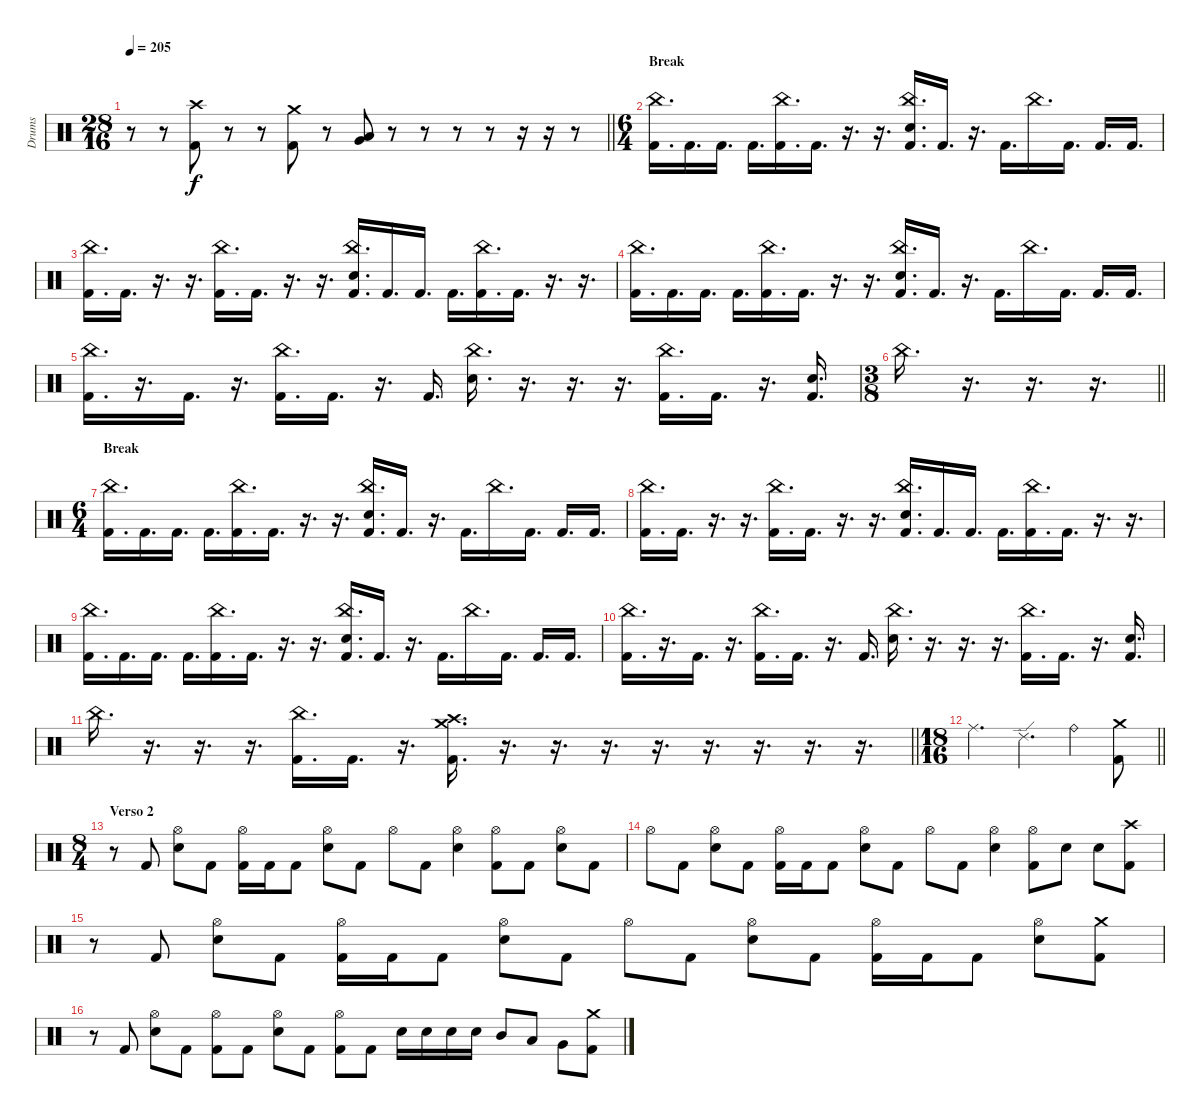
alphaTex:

\track ("Drums" "Drums") {instrument percussion}
\staff {score}
\articulation defaults
\ts (28 16)
\tempo 205
\clef neutral
\barLineRight lightlight
\ks c
r.8{dy f} r.8 ("Crash high (hit)" "Kick (hit) 2").8 r.8 r.8 ("Crash medium (hit)" "Kick (hit) 2").8 r.8 ("Low Floor Tom (hit)" "Very Low Tom (hit)").8 r.8 r.8 r.8 r.8 r.16 r.16 r.8 |
\ts (6 4)
\section ("" "Break")
("China (hit)" "Kick (hit) 2").16{d} "Kick (hit) 2".16{d} "Kick (hit) 2".16{d} "Kick (hit) 2".16{d} ("China (hit)" "Kick (hit) 2").16{d} "Kick (hit) 2".16{d} r.16{d} r.16{d} ("China (hit)" "Electric Snare (hit)" "Kick (hit) 2").16{d} "Kick (hit) 2".16{d} r.16{d} "Kick (hit) 2".16{d} "China (hit)".16{d} "Kick (hit) 2".16{d} "Kick (hit) 2".16{d} "Kick (hit) 2".16{d} |
("China (hit)" "Kick (hit) 2").16{d} "Kick (hit) 2".16{d} r.16{d} r.16{d} ("China (hit)" "Kick (hit) 2").16{d} "Kick (hit) 2".16{d} r.16{d} r.16{d} ("China (hit)" "Electric Snare (hit)" "Kick (hit) 2").16{d} "Kick (hit) 2".16{d} "Kick (hit) 2".16{d} "Kick (hit) 2".16{d} ("China (hit)" "Kick (hit) 2").16{d} "Kick (hit) 2".16{d} r.16{d} r.16{d} |
("China (hit)" "Kick (hit) 2").16{d} "Kick (hit) 2".16{d} "Kick (hit) 2".16{d} "Kick (hit) 2".16{d} ("China (hit)" "Kick (hit) 2").16{d} "Kick (hit) 2".16{d} r.16{d} r.16{d} ("China (hit)" "Electric Snare (hit)" "Kick (hit) 2").16{d} "Kick (hit) 2".16{d} r.16{d} "Kick (hit) 2".16{d} "China (hit)".16{d} "Kick (hit) 2".16{d} "Kick (hit) 2".16{d} "Kick (hit) 2".16{d} |
("China (hit)" "Kick (hit) 2").16{d} r.16{d} "Kick (hit) 2".16{d} r.16{d} ("China (hit)" "Kick (hit) 2").16{d} "Kick (hit) 2".16{d} r.16{d} "Kick (hit) 2".16{d} ("China (hit)" "Electric Snare (hit)").16{d} r.16{d} r.16{d} r.16{d} ("China (hit)" "Kick (hit) 2").16{d} "Kick (hit) 2".16{d} r.16{d} ("Electric Snare (hit)" "Kick (hit) 2").16{d} |
\ts (3 8)
\barLineRight lightlight "China (hit)".16{d}
r.16{d} r.16{d} r.16{d} |
\ts (6 4)
\section ("" "Break")
("China (hit)" "Kick (hit) 2").16{d} "Kick (hit) 2".16{d} "Kick (hit) 2".16{d} "Kick (hit) 2".16{d} ("China (hit)" "Kick (hit) 2").16{d} "Kick (hit) 2".16{d} r.16{d} r.16{d} ("China (hit)" "Electric Snare (hit)" "Kick (hit) 2").16{d} "Kick (hit) 2".16{d} r.16{d} "Kick (hit) 2".16{d} "China (hit)".16{d} "Kick (hit) 2".16{d} "Kick (hit) 2".16{d} "Kick (hit) 2".16{d} |
("China (hit)" "Kick (hit) 2").16{d} "Kick (hit) 2".16{d} r.16{d} r.16{d} ("China (hit)" "Kick (hit) 2").16{d} "Kick (hit) 2".16{d} r.16{d} r.16{d} ("China (hit)" "Electric Snare (hit)" "Kick (hit) 2").16{d} "Kick (hit) 2".16{d} "Kick (hit) 2".16{d} "Kick (hit) 2".16{d} ("China (hit)" "Kick (hit) 2").16{d} "Kick (hit) 2".16{d} r.16{d} r.16{d} |
("China (hit)" "Kick (hit) 2").16{d} "Kick (hit) 2".16{d} "Kick (hit) 2".16{d} "Kick (hit) 2".16{d} ("China (hit)" "Kick (hit) 2").16{d} "Kick (hit) 2".16{d} r.16{d} r.16{d} ("China (hit)" "Electric Snare (hit)" "Kick (hit) 2").16{d} "Kick (hit) 2".16{d} r.16{d} "Kick (hit) 2".16{d} "China (hit)".16{d} "Kick (hit) 2".16{d} "Kick (hit) 2".16{d} "Kick (hit) 2".16{d} |
("China (hit)" "Kick (hit) 2").16{d} r.16{d} "Kick (hit) 2".16{d} r.16{d} ("China (hit)" "Kick (hit) 2").16{d} "Kick (hit) 2".16{d} r.16{d} "Kick (hit) 2".16{d} ("China (hit)" "Electric Snare (hit)").16{d} r.16{d} r.16{d} r.16{d} ("China (hit)" "Kick (hit) 2").16{d} "Kick (hit) 2".16{d} r.16{d} ("Electric Snare (hit)" "Kick (hit) 2").16{d} |
\barLineRight lightlight "China (hit)".16{d}
r.16{d} r.16{d} r.16{d} ("China (hit)" "Kick (hit) 2").16{d} "Kick (hit) 2".16{d} r.16{d} ("Crash high (hit)" "Crash medium (hit)" "Kick (hit) 2").16{d} r.16{d} r.16{d} r.16{d} r.16{d} r.16{d} r.16{d} r.16{d} r.16{d} |
\ts (18 16)
\barLineRight lightlight "Ride (middle)".4{d} "Ride (edge) 2".4{d} "Ride (bell)".4
("Crash medium (hit)" "Kick (hit) 2").8 |
\ts (8 4)
\section ("" "Verso 2")
r.8 "Kick (hit) 2".8 ("Hi-Hat (open)" "Electric Snare (hit)").8 "Kick (hit) 2".8 ("Hi-Hat (open)" "Kick (hit) 2").16 "Kick (hit) 2".16 "Kick (hit) 2".8 ("Hi-Hat (open)" "Electric Snare (hit)").8 "Kick (hit) 2".8 "Hi-Hat (open)".8 "Kick (hit) 2".8 ("Hi-Hat (open)" "Electric Snare (hit)").4 ("Hi-Hat (open)" "Kick (hit) 2").8 "Kick (hit) 2".8 ("Hi-Hat (open)" "Electric Snare (hit)").8 "Kick (hit) 2".8 |
"Hi-Hat (open)".8 "Kick (hit) 2".8 ("Hi-Hat (open)" "Electric Snare (hit)").8 "Kick (hit) 2".8 ("Hi-Hat (open)" "Kick (hit) 2").16 "Kick (hit) 2".16 "Kick (hit) 2".8 ("Hi-Hat (open)" "Electric Snare (hit)").8 "Kick (hit) 2".8 "Hi-Hat (open)".8 "Kick (hit) 2".8 ("Hi-Hat (open)" "Electric Snare (hit)").4 ("Hi-Hat (open)" "Kick (hit) 2").8 "Electric Snare (hit)".8 "Electric Snare (hit)".8 ("Crash high (hit)" "Kick (hit) 2").8 |
r.8 "Kick (hit) 2".8 ("Hi-Hat (open)" "Electric Snare (hit)").8 "Kick (hit) 2".8 ("Hi-Hat (open)" "Kick (hit) 2").16 "Kick (hit) 2".16 "Kick (hit) 2".8 ("Hi-Hat (open)" "Electric Snare (hit)").8 "Kick (hit) 2".8 "Hi-Hat (open)".8 "Kick (hit) 2".8 ("Hi-Hat (open)" "Electric Snare (hit)").8 "Kick (hit) 2".8 ("Hi-Hat (open)" "Kick (hit) 2").16 "Kick (hit) 2".16 "Kick (hit) 2".8 ("Hi-Hat (open)" "Electric Snare (hit)").8 ("Crash medium (hit)" "Kick (hit) 2").8 |
r.8 "Kick (hit) 2".8 ("Hi-Hat (open)" "Electric Snare (hit)").8 "Kick (hit) 2".8 ("Hi-Hat (open)" "Kick (hit) 2").8 "Kick (hit) 2".8 ("Hi-Hat (open)" "Electric Snare (hit)").8 "Kick (hit) 2".8 ("Hi-Hat (open)" "Kick (hit) 2").8 "Kick (hit) 2".8 "Electric Snare (hit)".16 "Electric Snare (hit)".16 "Electric Snare (hit)".16 "Electric Snare (hit)".16 "Mid Tom (hit)".8 "Low Tom (hit)".8 "Very Low Tom (hit)".8 ("Crash medium (hit)" "Kick (hit) 2").8
